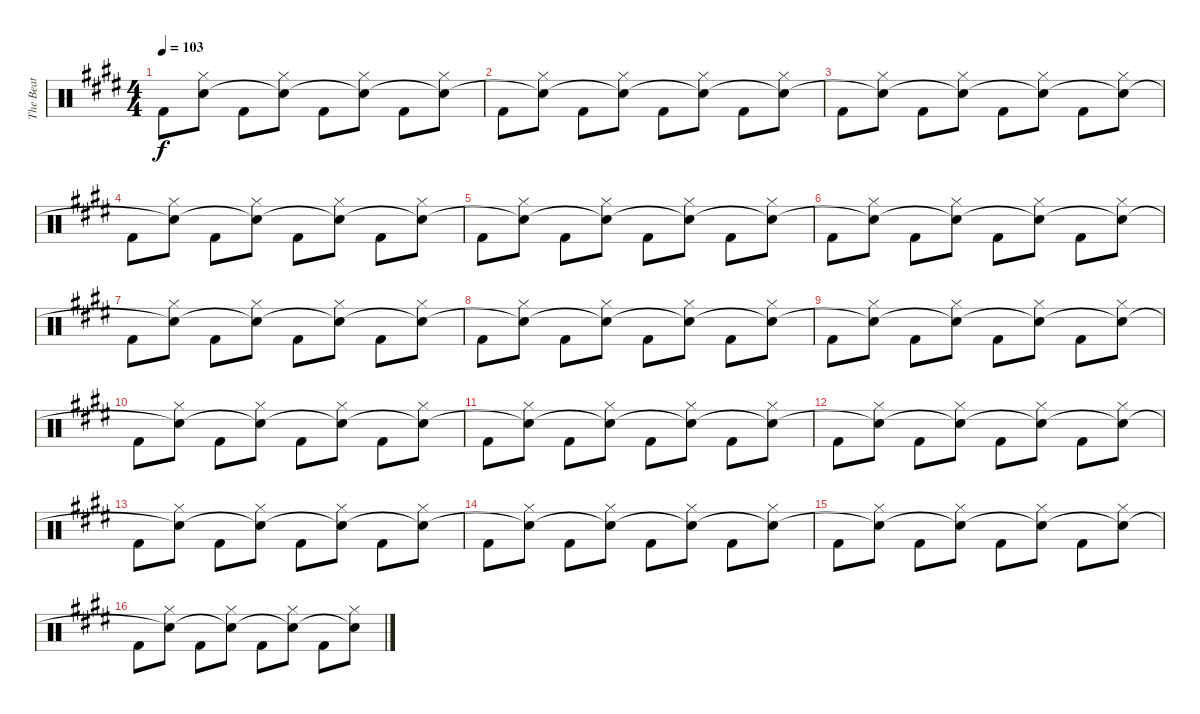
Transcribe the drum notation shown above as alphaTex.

\track ("The Beat" "The Beat") {instrument percussion}
\staff {score}
\articulation defaults
\ts (4 4)
\tempo 103
\clef neutral
\ks e "Kick (hit) 2".8{dy f}
("Hi-Hat (closed)" "Snare (hit)"{t}).8 "Kick (hit) 2".8 ("Hi-Hat (closed)" "Snare (hit)"{t}).8 "Kick (hit) 2".8 ("Hi-Hat (closed)" "Snare (hit)"{t}).8 "Kick (hit) 2".8 ("Hi-Hat (closed)" "Snare (hit)"{t}).8 |
"Kick (hit) 2".8 ("Hi-Hat (closed)" "Snare (hit)"{t}).8 "Kick (hit) 2".8 ("Hi-Hat (closed)" "Snare (hit)"{t}).8 "Kick (hit) 2".8 ("Hi-Hat (closed)" "Snare (hit)"{t}).8 "Kick (hit) 2".8 ("Hi-Hat (closed)" "Snare (hit)"{t}).8 |
"Kick (hit) 2".8 ("Hi-Hat (closed)" "Snare (hit)"{t}).8 "Kick (hit) 2".8 ("Hi-Hat (closed)" "Snare (hit)"{t}).8 "Kick (hit) 2".8 ("Hi-Hat (closed)" "Snare (hit)"{t}).8 "Kick (hit) 2".8 ("Hi-Hat (closed)" "Snare (hit)"{t}).8 |
"Kick (hit) 2".8 ("Hi-Hat (closed)" "Snare (hit)"{t}).8 "Kick (hit) 2".8 ("Hi-Hat (closed)" "Snare (hit)"{t}).8 "Kick (hit) 2".8 ("Hi-Hat (closed)" "Snare (hit)"{t}).8 "Kick (hit) 2".8 ("Hi-Hat (closed)" "Snare (hit)"{t}).8 |
"Kick (hit) 2".8 ("Hi-Hat (closed)" "Snare (hit)"{t}).8 "Kick (hit) 2".8 ("Hi-Hat (closed)" "Snare (hit)"{t}).8 "Kick (hit) 2".8 ("Hi-Hat (closed)" "Snare (hit)"{t}).8 "Kick (hit) 2".8 ("Hi-Hat (closed)" "Snare (hit)"{t}).8 |
"Kick (hit) 2".8 ("Hi-Hat (closed)" "Snare (hit)"{t}).8 "Kick (hit) 2".8 ("Hi-Hat (closed)" "Snare (hit)"{t}).8 "Kick (hit) 2".8 ("Hi-Hat (closed)" "Snare (hit)"{t}).8 "Kick (hit) 2".8 ("Hi-Hat (closed)" "Snare (hit)"{t}).8 |
"Kick (hit) 2".8 ("Hi-Hat (closed)" "Snare (hit)"{t}).8 "Kick (hit) 2".8 ("Hi-Hat (closed)" "Snare (hit)"{t}).8 "Kick (hit) 2".8 ("Hi-Hat (closed)" "Snare (hit)"{t}).8 "Kick (hit) 2".8 ("Hi-Hat (closed)" "Snare (hit)"{t}).8 |
"Kick (hit) 2".8 ("Hi-Hat (closed)" "Snare (hit)"{t}).8 "Kick (hit) 2".8 ("Hi-Hat (closed)" "Snare (hit)"{t}).8 "Kick (hit) 2".8 ("Hi-Hat (closed)" "Snare (hit)"{t}).8 "Kick (hit) 2".8 ("Hi-Hat (closed)" "Snare (hit)"{t}).8 |
"Kick (hit) 2".8 ("Hi-Hat (closed)" "Snare (hit)"{t}).8 "Kick (hit) 2".8 ("Hi-Hat (closed)" "Snare (hit)"{t}).8 "Kick (hit) 2".8 ("Hi-Hat (closed)" "Snare (hit)"{t}).8 "Kick (hit) 2".8 ("Hi-Hat (closed)" "Snare (hit)"{t}).8 |
"Kick (hit) 2".8 ("Hi-Hat (closed)" "Snare (hit)"{t}).8 "Kick (hit) 2".8 ("Hi-Hat (closed)" "Snare (hit)"{t}).8 "Kick (hit) 2".8 ("Hi-Hat (closed)" "Snare (hit)"{t}).8 "Kick (hit) 2".8 ("Hi-Hat (closed)" "Snare (hit)"{t}).8 |
"Kick (hit) 2".8 ("Hi-Hat (closed)" "Snare (hit)"{t}).8 "Kick (hit) 2".8 ("Hi-Hat (closed)" "Snare (hit)"{t}).8 "Kick (hit) 2".8 ("Hi-Hat (closed)" "Snare (hit)"{t}).8 "Kick (hit) 2".8 ("Hi-Hat (closed)" "Snare (hit)"{t}).8 |
"Kick (hit) 2".8 ("Hi-Hat (closed)" "Snare (hit)"{t}).8 "Kick (hit) 2".8 ("Hi-Hat (closed)" "Snare (hit)"{t}).8 "Kick (hit) 2".8 ("Hi-Hat (closed)" "Snare (hit)"{t}).8 "Kick (hit) 2".8 ("Hi-Hat (closed)" "Snare (hit)"{t}).8 |
"Kick (hit) 2".8 ("Hi-Hat (closed)" "Snare (hit)"{t}).8 "Kick (hit) 2".8 ("Hi-Hat (closed)" "Snare (hit)"{t}).8 "Kick (hit) 2".8 ("Hi-Hat (closed)" "Snare (hit)"{t}).8 "Kick (hit) 2".8 ("Hi-Hat (closed)" "Snare (hit)"{t}).8 |
"Kick (hit) 2".8 ("Hi-Hat (closed)" "Snare (hit)"{t}).8 "Kick (hit) 2".8 ("Hi-Hat (closed)" "Snare (hit)"{t}).8 "Kick (hit) 2".8 ("Hi-Hat (closed)" "Snare (hit)"{t}).8 "Kick (hit) 2".8 ("Hi-Hat (closed)" "Snare (hit)"{t}).8 |
"Kick (hit) 2".8 ("Hi-Hat (closed)" "Snare (hit)"{t}).8 "Kick (hit) 2".8 ("Hi-Hat (closed)" "Snare (hit)"{t}).8 "Kick (hit) 2".8 ("Hi-Hat (closed)" "Snare (hit)"{t}).8 "Kick (hit) 2".8 ("Hi-Hat (closed)" "Snare (hit)"{t}).8 |
"Kick (hit) 2".8 ("Hi-Hat (closed)" "Snare (hit)"{t}).8 "Kick (hit) 2".8 ("Hi-Hat (closed)" "Snare (hit)"{t}).8 "Kick (hit) 2".8 ("Hi-Hat (closed)" "Snare (hit)"{t}).8 "Kick (hit) 2".8 ("Hi-Hat (closed)" "Snare (hit)"{t}).8
